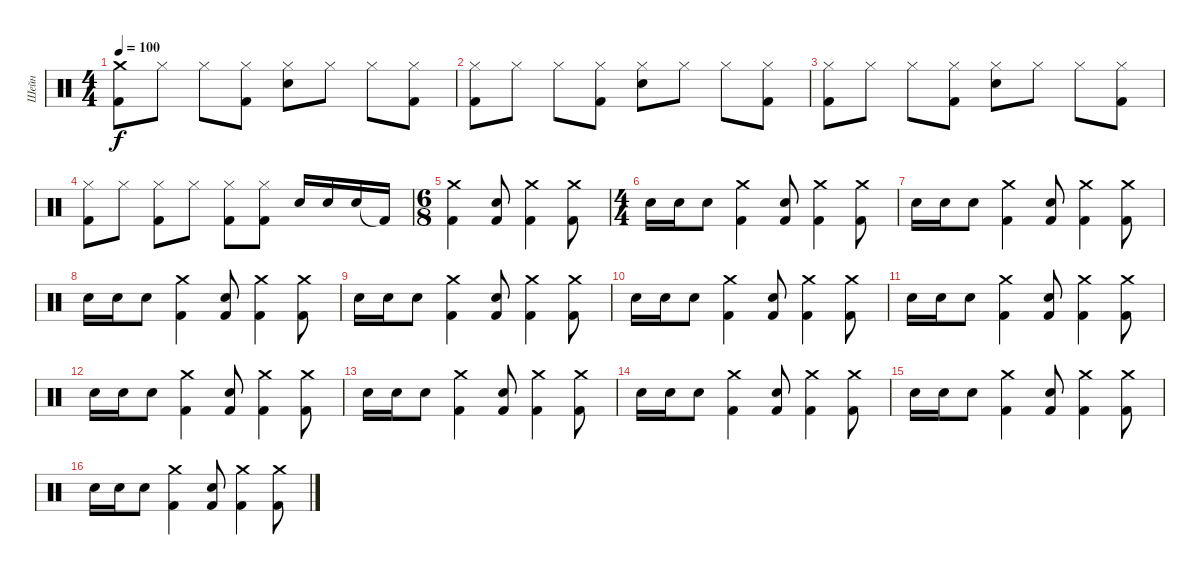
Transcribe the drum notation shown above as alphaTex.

\track ("Шейн" "Шейн") {instrument percussion}
\staff {score}
\articulation defaults
\ts (4 4)
\tempo 100
\clef neutral
\ks c
("Crash medium (hit)" "Kick (hit) 2").8{dy f} "Hi-Hat (closed)".8 "Hi-Hat (closed)".8 ("Kick (hit) 2" "Hi-Hat (closed)").8 ("Snare (hit) 2" "Hi-Hat (closed)").8 "Hi-Hat (closed)".8 "Hi-Hat (closed)".8 ("Kick (hit) 2" "Hi-Hat (closed)").8 |
("Kick (hit) 2" "Hi-Hat (closed)").8 "Hi-Hat (closed)".8 "Hi-Hat (closed)".8 ("Kick (hit) 2" "Hi-Hat (closed)").8 ("Snare (hit) 2" "Hi-Hat (closed)").8 "Hi-Hat (closed)".8 "Hi-Hat (closed)".8 ("Kick (hit) 2" "Hi-Hat (closed)").8 |
("Kick (hit) 2" "Hi-Hat (closed)").8 "Hi-Hat (closed)".8 "Hi-Hat (closed)".8 ("Kick (hit) 2" "Hi-Hat (closed)").8 ("Snare (hit) 2" "Hi-Hat (closed)").8 "Hi-Hat (closed)".8 "Hi-Hat (closed)".8 ("Kick (hit) 2" "Hi-Hat (closed)").8 |
("Kick (hit) 2" "Hi-Hat (closed)").8 "Hi-Hat (closed)".8 ("Kick (hit) 2" "Hi-Hat (closed)").8 "Hi-Hat (closed)".8 ("Kick (hit) 2" "Hi-Hat (closed)").8 ("Kick (hit) 2" "Hi-Hat (closed)").8 "Snare (hit) 2".16 "Electric Snare (hit)".16 "Snare (hit) 2".16 "Kick (hit) 2"{t}.16 |
\ts (6 8)
("Kick (hit) 2" "Crash medium (hit)").4 ("Electric Snare (hit)" "Kick (hit) 2").8 ("Kick (hit) 2" "Crash medium (hit)").4 ("Kick (hit) 2" "Crash medium (hit)").8 |
\ts (4 4)
"Snare (hit) 2".16 "Electric Snare (hit)".16 "Snare (hit) 2".8 ("Kick (hit) 2" "Crash medium (hit)").4 ("Electric Snare (hit)" "Kick (hit) 2").8 ("Kick (hit) 2" "Crash medium (hit)").4 ("Kick (hit) 2" "Crash medium (hit)").8 |
"Snare (hit) 2".16 "Electric Snare (hit)".16 "Snare (hit) 2".8 ("Kick (hit) 2" "Crash medium (hit)").4 ("Electric Snare (hit)" "Kick (hit) 2").8 ("Kick (hit) 2" "Crash medium (hit)").4 ("Kick (hit) 2" "Crash medium (hit)").8 |
"Snare (hit) 2".16 "Electric Snare (hit)".16 "Snare (hit) 2".8 ("Kick (hit) 2" "Crash medium (hit)").4 ("Electric Snare (hit)" "Kick (hit) 2").8 ("Kick (hit) 2" "Crash medium (hit)").4 ("Kick (hit) 2" "Crash medium (hit)").8 |
"Snare (hit) 2".16 "Electric Snare (hit)".16 "Snare (hit) 2".8 ("Kick (hit) 2" "Crash medium (hit)").4 ("Electric Snare (hit)" "Kick (hit) 2").8 ("Kick (hit) 2" "Crash medium (hit)").4 ("Kick (hit) 2" "Crash medium (hit)").8 |
"Snare (hit) 2".16 "Electric Snare (hit)".16 "Snare (hit) 2".8 ("Kick (hit) 2" "Crash medium (hit)").4 ("Electric Snare (hit)" "Kick (hit) 2").8 ("Kick (hit) 2" "Crash medium (hit)").4 ("Kick (hit) 2" "Crash medium (hit)").8 |
"Snare (hit) 2".16 "Electric Snare (hit)".16 "Snare (hit) 2".8 ("Kick (hit) 2" "Crash medium (hit)").4 ("Electric Snare (hit)" "Kick (hit) 2").8 ("Kick (hit) 2" "Crash medium (hit)").4 ("Kick (hit) 2" "Crash medium (hit)").8 |
"Snare (hit) 2".16 "Electric Snare (hit)".16 "Snare (hit) 2".8 ("Kick (hit) 2" "Crash medium (hit)").4 ("Electric Snare (hit)" "Kick (hit) 2").8 ("Kick (hit) 2" "Crash medium (hit)").4 ("Kick (hit) 2" "Crash medium (hit)").8 |
"Snare (hit) 2".16 "Electric Snare (hit)".16 "Snare (hit) 2".8 ("Kick (hit) 2" "Crash medium (hit)").4 ("Electric Snare (hit)" "Kick (hit) 2").8 ("Kick (hit) 2" "Crash medium (hit)").4 ("Kick (hit) 2" "Crash medium (hit)").8 |
"Snare (hit) 2".16 "Electric Snare (hit)".16 "Snare (hit) 2".8 ("Kick (hit) 2" "Crash medium (hit)").4 ("Electric Snare (hit)" "Kick (hit) 2").8 ("Kick (hit) 2" "Crash medium (hit)").4 ("Kick (hit) 2" "Crash medium (hit)").8 |
"Snare (hit) 2".16 "Electric Snare (hit)".16 "Snare (hit) 2".8 ("Kick (hit) 2" "Crash medium (hit)").4 ("Electric Snare (hit)" "Kick (hit) 2").8 ("Kick (hit) 2" "Crash medium (hit)").4 ("Kick (hit) 2" "Crash medium (hit)").8 |
"Snare (hit) 2".16 "Electric Snare (hit)".16 "Snare (hit) 2".8 ("Kick (hit) 2" "Crash medium (hit)").4 ("Electric Snare (hit)" "Kick (hit) 2").8 ("Kick (hit) 2" "Crash medium (hit)").4 ("Kick (hit) 2" "Crash medium (hit)").8
